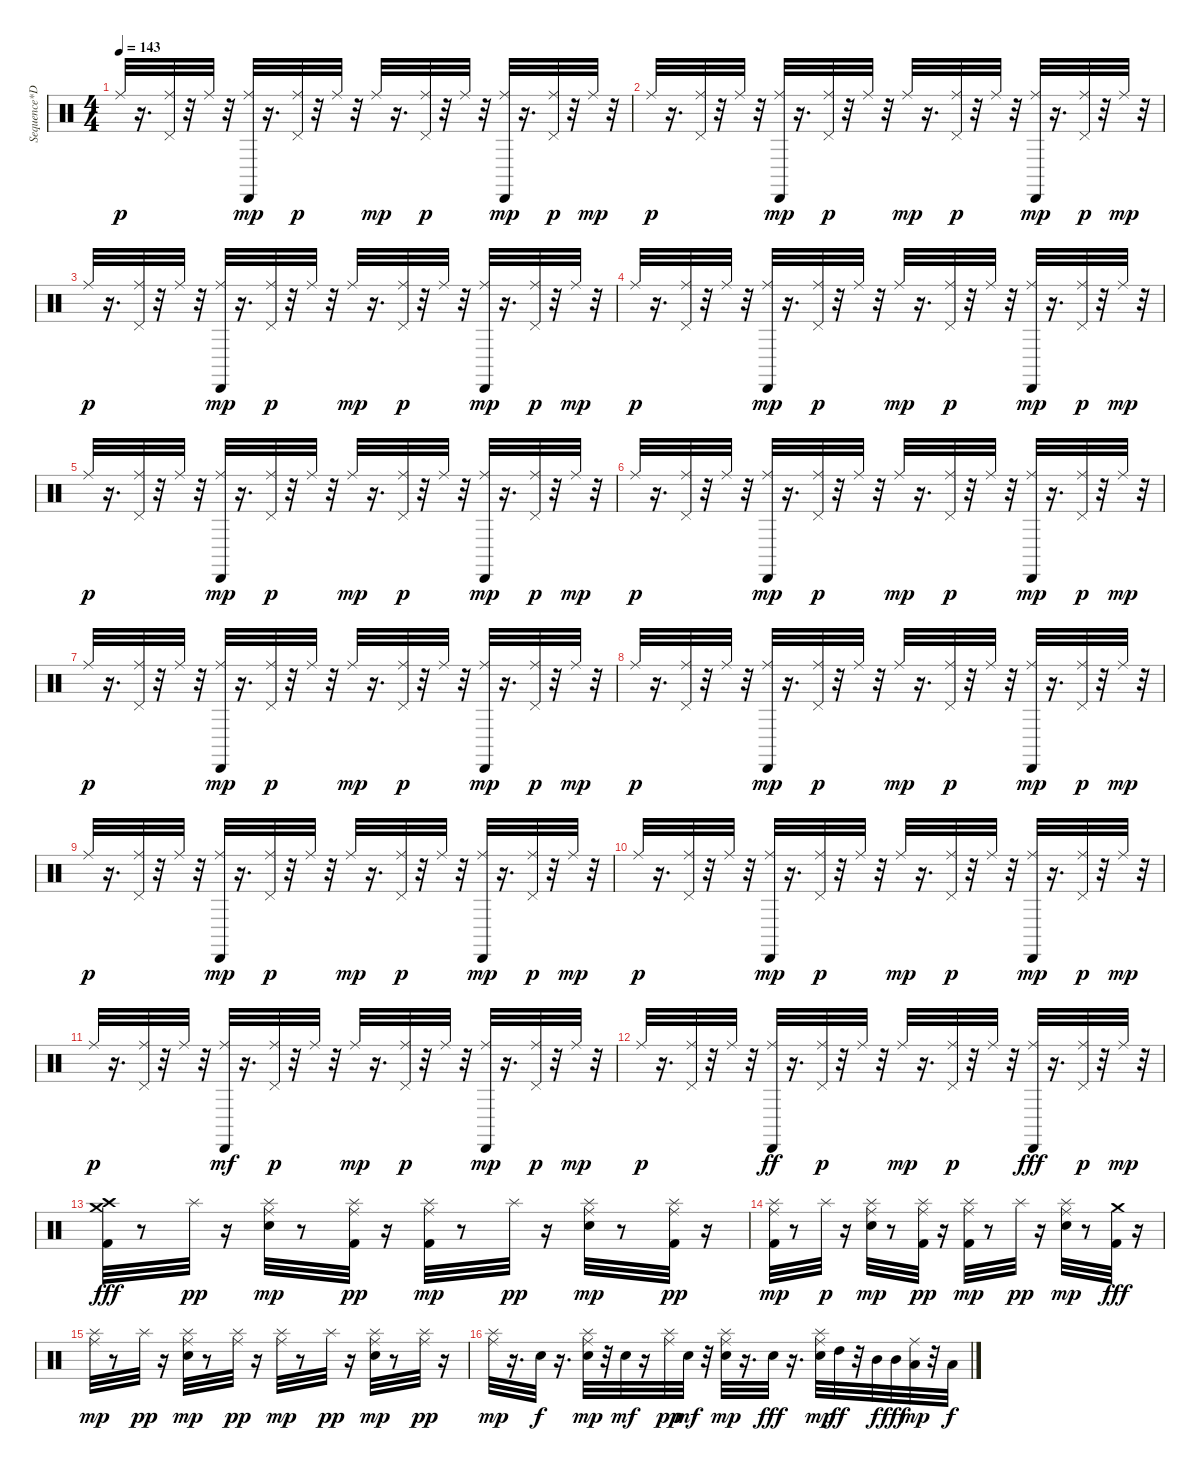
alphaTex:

\track ("Sequence*Demixed 10" "Sequence*D") {instrument percussion}
\staff {score}
\articulation defaults
\ts (4 4)
\tempo 143
\clef neutral
\ks c "Ride (middle)".32{dy p}
r.16{d} ("Pedal Hi-Hat (hit)" "Ride (middle)").32 r.32 "Ride (middle)".32 r.32 ("Ride (middle)" "Cabasa (hit)").32{dy mp} r.16{d} ("Pedal Hi-Hat (hit)" "Ride (middle)").32{dy p} r.32 "Ride (middle)".32 r.32 "Ride (middle)".32{dy mp} r.16{d} ("Pedal Hi-Hat (hit)" "Ride (middle)").32{dy p} r.32 "Ride (middle)".32 r.32 ("Ride (middle)" "Cabasa (hit)").32{dy mp} r.16{d} ("Pedal Hi-Hat (hit)" "Ride (middle)").32{dy p} r.32 "Ride (middle)".32{dy mp} r.32 |
"Ride (middle)".32{dy p} r.16{d} ("Pedal Hi-Hat (hit)" "Ride (middle)").32 r.32 "Ride (middle)".32 r.32 ("Ride (middle)" "Cabasa (hit)").32{dy mp} r.16{d} ("Pedal Hi-Hat (hit)" "Ride (middle)").32{dy p} r.32 "Ride (middle)".32 r.32 "Ride (middle)".32{dy mp} r.16{d} ("Pedal Hi-Hat (hit)" "Ride (middle)").32{dy p} r.32 "Ride (middle)".32 r.32 ("Ride (middle)" "Cabasa (hit)").32{dy mp} r.16{d} ("Pedal Hi-Hat (hit)" "Ride (middle)").32{dy p} r.32 "Ride (middle)".32{dy mp} r.32 |
"Ride (middle)".32{dy p} r.16{d} ("Pedal Hi-Hat (hit)" "Ride (middle)").32 r.32 "Ride (middle)".32 r.32 ("Ride (middle)" "Cabasa (hit)").32{dy mp} r.16{d} ("Pedal Hi-Hat (hit)" "Ride (middle)").32{dy p} r.32 "Ride (middle)".32 r.32 "Ride (middle)".32{dy mp} r.16{d} ("Pedal Hi-Hat (hit)" "Ride (middle)").32{dy p} r.32 "Ride (middle)".32 r.32 ("Ride (middle)" "Cabasa (hit)").32{dy mp} r.16{d} ("Pedal Hi-Hat (hit)" "Ride (middle)").32{dy p} r.32 "Ride (middle)".32{dy mp} r.32 |
"Ride (middle)".32{dy p} r.16{d} ("Pedal Hi-Hat (hit)" "Ride (middle)").32 r.32 "Ride (middle)".32 r.32 ("Ride (middle)" "Cabasa (hit)").32{dy mp} r.16{d} ("Pedal Hi-Hat (hit)" "Ride (middle)").32{dy p} r.32 "Ride (middle)".32 r.32 "Ride (middle)".32{dy mp} r.16{d} ("Pedal Hi-Hat (hit)" "Ride (middle)").32{dy p} r.32 "Ride (middle)".32 r.32 ("Ride (middle)" "Cabasa (hit)").32{dy mp} r.16{d} ("Pedal Hi-Hat (hit)" "Ride (middle)").32{dy p} r.32 "Ride (middle)".32{dy mp} r.32 |
"Ride (middle)".32{dy p} r.16{d} ("Pedal Hi-Hat (hit)" "Ride (middle)").32 r.32 "Ride (middle)".32 r.32 ("Ride (middle)" "Cabasa (hit)").32{dy mp} r.16{d} ("Pedal Hi-Hat (hit)" "Ride (middle)").32{dy p} r.32 "Ride (middle)".32 r.32 "Ride (middle)".32{dy mp} r.16{d} ("Pedal Hi-Hat (hit)" "Ride (middle)").32{dy p} r.32 "Ride (middle)".32 r.32 ("Ride (middle)" "Cabasa (hit)").32{dy mp} r.16{d} ("Pedal Hi-Hat (hit)" "Ride (middle)").32{dy p} r.32 "Ride (middle)".32{dy mp} r.32 |
"Ride (middle)".32{dy p} r.16{d} ("Pedal Hi-Hat (hit)" "Ride (middle)").32 r.32 "Ride (middle)".32 r.32 ("Ride (middle)" "Cabasa (hit)").32{dy mp} r.16{d} ("Pedal Hi-Hat (hit)" "Ride (middle)").32{dy p} r.32 "Ride (middle)".32 r.32 "Ride (middle)".32{dy mp} r.16{d} ("Pedal Hi-Hat (hit)" "Ride (middle)").32{dy p} r.32 "Ride (middle)".32 r.32 ("Ride (middle)" "Cabasa (hit)").32{dy mp} r.16{d} ("Pedal Hi-Hat (hit)" "Ride (middle)").32{dy p} r.32 "Ride (middle)".32{dy mp} r.32 |
"Ride (middle)".32{dy p} r.16{d} ("Pedal Hi-Hat (hit)" "Ride (middle)").32 r.32 "Ride (middle)".32 r.32 ("Ride (middle)" "Cabasa (hit)").32{dy mp} r.16{d} ("Pedal Hi-Hat (hit)" "Ride (middle)").32{dy p} r.32 "Ride (middle)".32 r.32 "Ride (middle)".32{dy mp} r.16{d} ("Pedal Hi-Hat (hit)" "Ride (middle)").32{dy p} r.32 "Ride (middle)".32 r.32 ("Ride (middle)" "Cabasa (hit)").32{dy mp} r.16{d} ("Pedal Hi-Hat (hit)" "Ride (middle)").32{dy p} r.32 "Ride (middle)".32{dy mp} r.32 |
"Ride (middle)".32{dy p} r.16{d} ("Pedal Hi-Hat (hit)" "Ride (middle)").32 r.32 "Ride (middle)".32 r.32 ("Ride (middle)" "Cabasa (hit)").32{dy mp} r.16{d} ("Pedal Hi-Hat (hit)" "Ride (middle)").32{dy p} r.32 "Ride (middle)".32 r.32 "Ride (middle)".32{dy mp} r.16{d} ("Pedal Hi-Hat (hit)" "Ride (middle)").32{dy p} r.32 "Ride (middle)".32 r.32 ("Ride (middle)" "Cabasa (hit)").32{dy mp} r.16{d} ("Pedal Hi-Hat (hit)" "Ride (middle)").32{dy p} r.32 "Ride (middle)".32{dy mp} r.32 |
"Ride (middle)".32{dy p} r.16{d} ("Pedal Hi-Hat (hit)" "Ride (middle)").32 r.32 "Ride (middle)".32 r.32 ("Ride (middle)" "Cabasa (hit)").32{dy mp} r.16{d} ("Pedal Hi-Hat (hit)" "Ride (middle)").32{dy p} r.32 "Ride (middle)".32 r.32 "Ride (middle)".32{dy mp} r.16{d} ("Pedal Hi-Hat (hit)" "Ride (middle)").32{dy p} r.32 "Ride (middle)".32 r.32 ("Ride (middle)" "Cabasa (hit)").32{dy mp} r.16{d} ("Pedal Hi-Hat (hit)" "Ride (middle)").32{dy p} r.32 "Ride (middle)".32{dy mp} r.32 |
"Ride (middle)".32{dy p} r.16{d} ("Pedal Hi-Hat (hit)" "Ride (middle)").32 r.32 "Ride (middle)".32 r.32 ("Ride (middle)" "Cabasa (hit)").32{dy mp} r.16{d} ("Pedal Hi-Hat (hit)" "Ride (middle)").32{dy p} r.32 "Ride (middle)".32 r.32 "Ride (middle)".32{dy mp} r.16{d} ("Pedal Hi-Hat (hit)" "Ride (middle)").32{dy p} r.32 "Ride (middle)".32 r.32 ("Ride (middle)" "Cabasa (hit)").32{dy mp} r.16{d} ("Pedal Hi-Hat (hit)" "Ride (middle)").32{dy p} r.32 "Ride (middle)".32{dy mp} r.32 |
"Ride (middle)".32{dy p} r.16{d} ("Pedal Hi-Hat (hit)" "Ride (middle)").32 r.32 "Ride (middle)".32 r.32 ("Ride (middle)" "Cabasa (hit)").32{dy mf} r.16{d} ("Pedal Hi-Hat (hit)" "Ride (middle)").32{dy p} r.32 "Ride (middle)".32 r.32 "Ride (middle)".32{dy mp} r.16{d} ("Pedal Hi-Hat (hit)" "Ride (middle)").32{dy p} r.32 "Ride (middle)".32 r.32 ("Ride (middle)" "Cabasa (hit)").32{dy mp} r.16{d} ("Pedal Hi-Hat (hit)" "Ride (middle)").32{dy p} r.32 "Ride (middle)".32{dy mp} r.32 |
"Ride (middle)".32{dy p} r.16{d} ("Pedal Hi-Hat (hit)" "Ride (middle)").32 r.32 "Ride (middle)".32 r.32 ("Ride (middle)" "Cabasa (hit)").32{dy ff} r.16{d} ("Pedal Hi-Hat (hit)" "Ride (middle)").32{dy p} r.32 "Ride (middle)".32 r.32 "Ride (middle)".32{dy mp} r.16{d} ("Pedal Hi-Hat (hit)" "Ride (middle)").32{dy p} r.32 "Ride (middle)".32 r.32 ("Ride (middle)" "Cabasa (hit)").32{dy fff} r.16{d} ("Pedal Hi-Hat (hit)" "Ride (middle)").32{dy p} r.32 "Ride (middle)".32{dy mp} r.32 |
("Kick (hit) 2" "Crash high (hit)" "Crash medium (hit)").32{dy fff} r.8 "Splash (hit)".32{dy pp} r.16 ("Electric Snare (hit)" "Ride (middle)" "Splash (hit)").32{dy mp} r.8 ("Kick (hit) 2" "Ride (middle)" "Splash (hit)").32{dy pp} r.16 ("Kick (hit) 2" "Ride (middle)" "Splash (hit)").32{dy mp} r.8 "Splash (hit)".32{dy pp} r.16 ("Electric Snare (hit)" "Ride (middle)" "Splash (hit)").32{dy mp} r.8 ("Kick (hit) 2" "Ride (middle)" "Splash (hit)").32{dy pp} r.16 |
("Kick (hit) 2" "Ride (middle)" "Splash (hit)").32{dy mp} r.8 "Splash (hit)".32{dy p} r.16 ("Electric Snare (hit)" "Ride (middle)" "Splash (hit)").32{dy mp} r.8 ("Kick (hit) 2" "Ride (middle)" "Splash (hit)").32{dy pp} r.16 ("Kick (hit) 2" "Ride (middle)" "Splash (hit)").32{dy mp} r.8 "Splash (hit)".32{dy pp} r.16 ("Electric Snare (hit)" "Ride (middle)" "Splash (hit)").32{dy mp} r.8 ("Kick (hit) 2" "Crash medium (hit)").32{dy fff} r.16 |
("Ride (middle)" "Splash (hit)").32{dy mp} r.8 "Splash (hit)".32{dy pp} r.16 ("Electric Snare (hit)" "Ride (middle)" "Splash (hit)").32{dy mp} r.8 ("Ride (middle)" "Splash (hit)").32{dy pp} r.16 ("Ride (middle)" "Splash (hit)").32{dy mp} r.8 "Splash (hit)".32{dy pp} r.16 ("Electric Snare (hit)" "Ride (middle)" "Splash (hit)").32{dy mp} r.8 ("Ride (middle)" "Splash (hit)").32{dy pp} r.16 |
("Ride (middle)" "Splash (hit)").32{dy mp} r.16{d} "Electric Snare (hit)".32{dy f} r.16{d} ("Electric Snare (hit)" "Ride (middle)" "Splash (hit)").32{dy mp} r.32 "Electric Snare (hit)".32{dy mf} r.16 ("Ride (middle)" "Splash (hit)").32{dy pp} "Electric Snare (hit)".32{dy mf} r.32 ("Electric Snare (hit)" "Ride (middle)" "Splash (hit)").32{dy mp} r.16{d} "Electric Snare (hit)".32{dy fff} r.16{d} ("Electric Snare (hit)" "Ride (middle)" "Splash (hit)").32{dy mp} "High Tom (hit)".32{dy ff} r.32 "Mid Tom (hit)".32{dy f} "Mid Tom (hit)".32{dy fff} ("Low Tom (hit)" "Ride (middle)").32{dy mp} r.32 "Low Tom (hit)".32{dy f}
